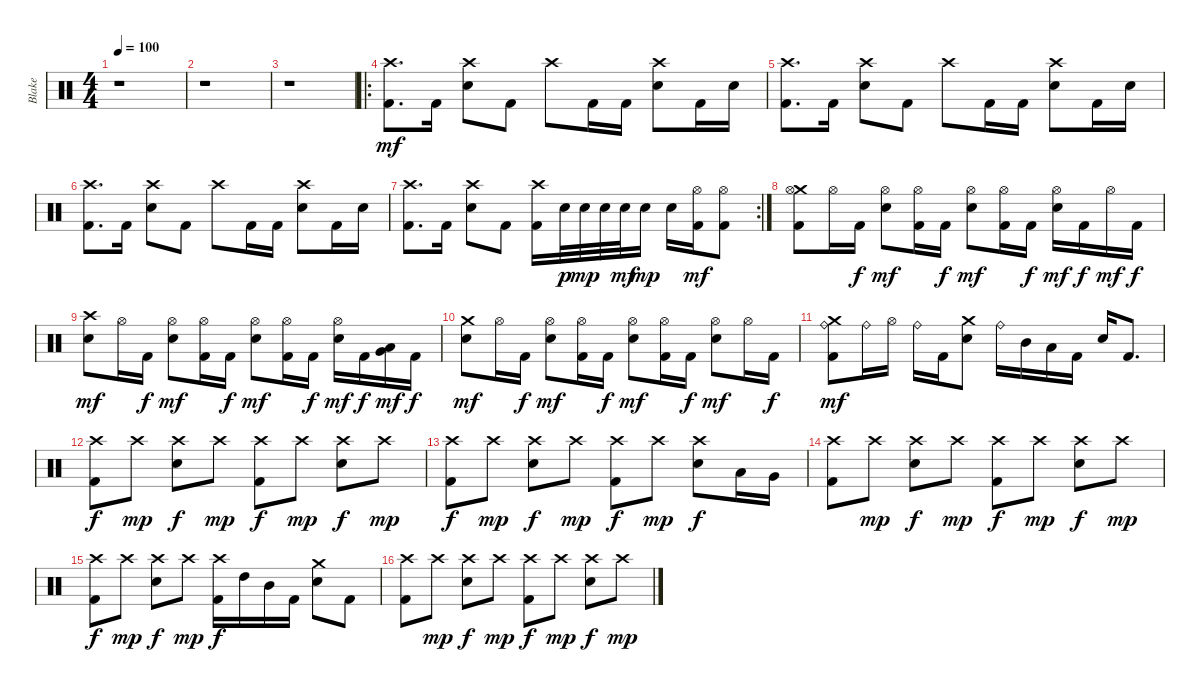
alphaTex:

\track ("Blake" "Blake") {instrument percussion}
\staff {score}
\articulation defaults
\ts (4 4)
\tempo 100
\clef neutral
\ks c
r.1{dy mf} |
r.1 |
r.1 |
\ro
("Crash high (hit)" "Kick (hit) 2").8{d} "Kick (hit) 2".16 ("Crash high (hit)" "Snare (hit) 2").8 "Kick (hit) 2".8 "Crash high (hit)".8 "Kick (hit) 2".16 "Kick (hit) 2".16 ("Crash high (hit)" "Snare (hit) 2").8 "Kick (hit) 2".16 "Snare (hit) 2".16 |
("Crash high (hit)" "Kick (hit) 2").8{d} "Kick (hit) 2".16 ("Crash high (hit)" "Snare (hit) 2").8 "Kick (hit) 2".8 "Crash high (hit)".8 "Kick (hit) 2".16 "Kick (hit) 2".16 ("Crash high (hit)" "Snare (hit) 2").8 "Kick (hit) 2".16 "Snare (hit) 2".16 |
("Crash high (hit)" "Kick (hit) 2").8{d} "Kick (hit) 2".16 ("Crash high (hit)" "Snare (hit) 2").8 "Kick (hit) 2".8 "Crash high (hit)".8 "Kick (hit) 2".16 "Kick (hit) 2".16 ("Crash high (hit)" "Snare (hit) 2").8 "Kick (hit) 2".16 "Snare (hit) 2".16 |
\rc 2
("Crash high (hit)" "Kick (hit) 2").8{d} "Kick (hit) 2".16 ("Crash high (hit)" "Snare (hit) 2").8 "Kick (hit) 2".8 ("Crash high (hit)" "Kick (hit) 2").16 "Snare (hit) 2".32{dy p} "Snare (hit) 2".32{dy mp} "Snare (hit) 2".32 "Snare (hit) 2".32{dy mf} "Snare (hit) 2".16{dy mp} "Snare (hit) 2".16 ("Hi-Hat (open)" "Kick (hit) 2").16{dy mf} ("Hi-Hat (open)" "Kick (hit) 2").8 |
("Crash medium (hit)" "Hi-Hat (open)" "Kick (hit) 2").8 "Hi-Hat (open)".16 "Kick (hit) 2".16{dy f} ("Hi-Hat (open)" "Snare (hit) 2").8{dy mf} ("Hi-Hat (open)" "Kick (hit) 2").16 "Kick (hit) 2".16{dy f} ("Hi-Hat (open)" "Snare (hit) 2").8{dy mf} ("Hi-Hat (open)" "Kick (hit) 2").16 "Kick (hit) 2".16{dy f} ("Hi-Hat (open)" "Snare (hit) 2").16{dy mf} "Kick (hit) 2".16{dy f} "Hi-Hat (open)".16{dy mf} "Kick (hit) 2".16{dy f} |
("Crash high (hit)" "Snare (hit) 2").8{dy mf} "Hi-Hat (open)".16 "Kick (hit) 2".16{dy f} ("Hi-Hat (open)" "Snare (hit) 2").8{dy mf} ("Hi-Hat (open)" "Kick (hit) 2").16 "Kick (hit) 2".16{dy f} ("Hi-Hat (open)" "Snare (hit) 2").8{dy mf} ("Hi-Hat (open)" "Kick (hit) 2").16 "Kick (hit) 2".16{dy f} ("Hi-Hat (open)" "Snare (hit) 2").16{dy mf} "Kick (hit) 2".16{dy f} ("Low Floor Tom (hit)" "Very Low Tom (hit)").16{dy mf} "Kick (hit) 2".16{dy f} |
("Crash medium (hit)" "Snare (hit) 2").8{dy mf} "Hi-Hat (open)".16 "Kick (hit) 2".16{dy f} ("Hi-Hat (open)" "Snare (hit) 2").8{dy mf} ("Hi-Hat (open)" "Kick (hit) 2").16 "Kick (hit) 2".16{dy f} ("Hi-Hat (open)" "Snare (hit) 2").8{dy mf} ("Hi-Hat (open)" "Kick (hit) 2").16 "Kick (hit) 2".16{dy f} ("Hi-Hat (open)" "Snare (hit) 2").8{dy mf} "Hi-Hat (open)".16 "Kick (hit) 2".16{dy f} |
("Crash medium (hit)" "Ride (bell)" "Kick (hit) 2").8{dy mf} "Ride (bell)".16 "Hi-Hat (open)".16 "Ride (bell)".16 "Kick (hit) 2".16 ("Crash medium (hit)" "Snare (hit) 2").8 "Ride (bell)".16 "Mid Tom (hit)".16 "Low Tom (hit)".16 "Kick (hit) 2".16 "Snare (hit) 2".16 "Kick (hit) 2".8{d} |
("Crash high (hit)" "Kick (hit) 2").8{dy f} "Crash high (hit)".8{dy mp} ("Crash high (hit)" "Snare (hit) 2").8{dy f} "Crash high (hit)".8{dy mp} ("Crash high (hit)" "Kick (hit) 2").8{dy f} "Crash high (hit)".8{dy mp} ("Crash high (hit)" "Snare (hit) 2").8{dy f} "Crash high (hit)".8{dy mp} |
("Crash high (hit)" "Kick (hit) 2").8{dy f} "Crash high (hit)".8{dy mp} ("Crash high (hit)" "Snare (hit) 2").8{dy f} "Crash high (hit)".8{dy mp} ("Crash high (hit)" "Kick (hit) 2").8{dy f} "Crash high (hit)".8{dy mp} ("Crash high (hit)" "Snare (hit) 2").8{dy f} "Low Tom (hit)".16 "Very Low Tom (hit)".16 |
("Crash high (hit)" "Kick (hit) 2").8 "Crash high (hit)".8{dy mp} ("Crash high (hit)" "Snare (hit) 2").8{dy f} "Crash high (hit)".8{dy mp} ("Crash high (hit)" "Kick (hit) 2").8{dy f} "Crash high (hit)".8{dy mp} ("Crash high (hit)" "Snare (hit) 2").8{dy f} "Crash high (hit)".8{dy mp} |
("Crash high (hit)" "Kick (hit) 2").8{dy f} "Crash high (hit)".8{dy mp} ("Crash high (hit)" "Snare (hit) 2").8{dy f} "Crash high (hit)".8{dy mp} ("Crash high (hit)" "Kick (hit) 2").16{dy f} "High Tom (hit)".16 "Mid Tom (hit)".16 "Kick (hit) 2".16 ("Crash medium (hit)" "Snare (hit) 2").8 "Kick (hit) 2".8 |
("Crash high (hit)" "Kick (hit) 2").8 "Crash high (hit)".8{dy mp} ("Crash high (hit)" "Snare (hit) 2").8{dy f} "Crash high (hit)".8{dy mp} ("Crash high (hit)" "Kick (hit) 2").8{dy f} "Crash high (hit)".8{dy mp} ("Crash high (hit)" "Snare (hit) 2").8{dy f} "Crash high (hit)".8{dy mp}
